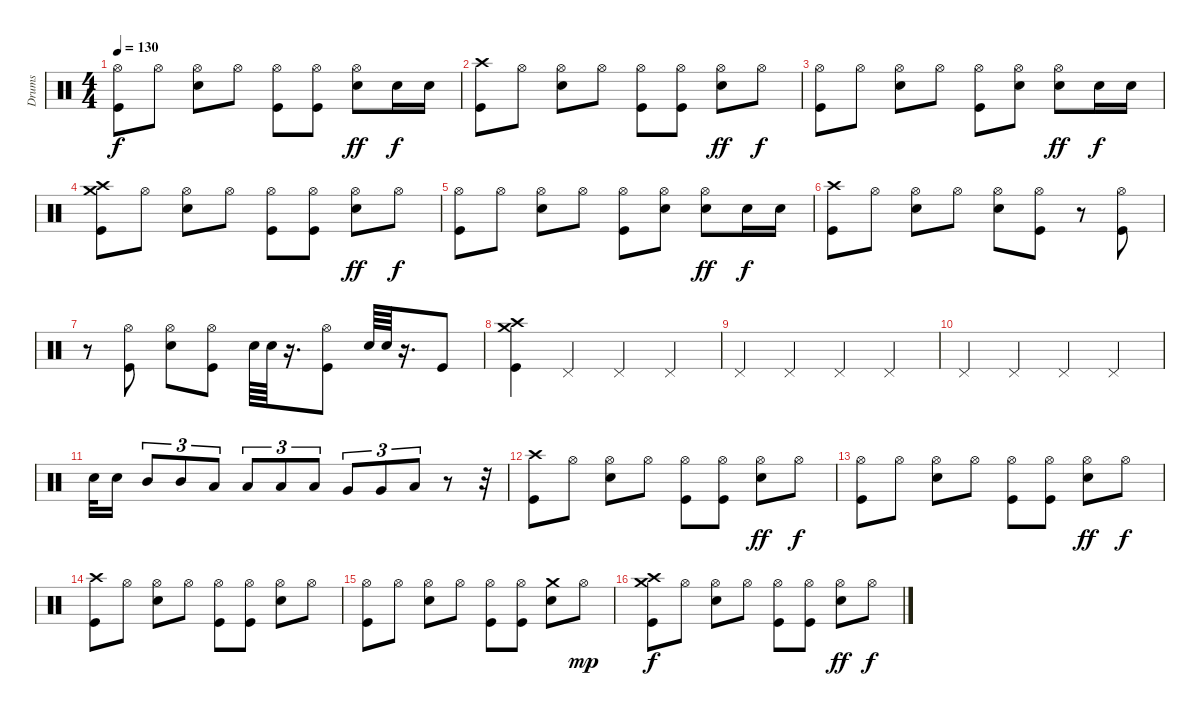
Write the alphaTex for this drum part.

\track ("Drums" "Drums") {instrument percussion}
\staff {score}
\articulation defaults
\ts (4 4)
\tempo 130
\clef neutral
\ks c
("Hi-Hat (open)" "Kick (hit)").8{dy f} "Hi-Hat (open)".8 ("Hi-Hat (open)" "Snare (hit) 2").8 "Hi-Hat (open)".8 ("Hi-Hat (open)" "Kick (hit)").8 ("Hi-Hat (open)" "Kick (hit)").8 ("Hi-Hat (open)" "Snare (hit) 2").8{dy ff} "Snare (hit) 2".16{dy f} "Snare (hit) 2".16 |
("Crash high (hit)" "Kick (hit)").8 "Hi-Hat (open)".8 ("Hi-Hat (open)" "Snare (hit) 2").8 "Hi-Hat (open)".8 ("Hi-Hat (open)" "Kick (hit)").8 ("Hi-Hat (open)" "Kick (hit)").8 ("Hi-Hat (open)" "Snare (hit) 2").8{dy ff} "Hi-Hat (open)".8{dy f} |
("Hi-Hat (open)" "Kick (hit)").8 "Hi-Hat (open)".8 ("Hi-Hat (open)" "Snare (hit) 2").8 "Hi-Hat (open)".8 ("Hi-Hat (open)" "Kick (hit)").8 ("Hi-Hat (open)" "Snare (hit) 2").8 ("Hi-Hat (open)" "Snare (hit) 2").8{dy ff} "Snare (hit) 2".16{dy f} "Snare (hit) 2".16 |
("Crash high (hit)" "Crash medium (hit)" "Kick (hit)").8 "Hi-Hat (open)".8 ("Hi-Hat (open)" "Snare (hit) 2").8 "Hi-Hat (open)".8 ("Hi-Hat (open)" "Kick (hit)").8 ("Hi-Hat (open)" "Kick (hit)").8 ("Hi-Hat (open)" "Snare (hit) 2").8{dy ff} "Hi-Hat (open)".8{dy f} |
("Hi-Hat (open)" "Kick (hit)").8 "Hi-Hat (open)".8 ("Hi-Hat (open)" "Snare (hit) 2").8 "Hi-Hat (open)".8 ("Hi-Hat (open)" "Kick (hit)").8 ("Hi-Hat (open)" "Snare (hit) 2").8 ("Hi-Hat (open)" "Snare (hit) 2").8{dy ff} "Snare (hit) 2".16{dy f} "Snare (hit) 2".16 |
("Crash high (hit)" "Kick (hit)").8 "Hi-Hat (open)".8 ("Hi-Hat (open)" "Snare (hit) 2").8 "Hi-Hat (open)".8 ("Hi-Hat (open)" "Snare (hit) 2").8 ("Hi-Hat (open)" "Kick (hit)").8 r.8 ("Hi-Hat (open)" "Kick (hit)").8 |
r.8 ("Hi-Hat (open)" "Kick (hit)").8 ("Hi-Hat (open)" "Snare (hit) 2").8 ("Hi-Hat (open)" "Kick (hit)").8 "Snare (hit) 2".64 "Snare (hit) 2".64 r.16{d} ("Hi-Hat (open)" "Kick (hit)").8 "Snare (hit) 2".64 "Snare (hit) 2".64 r.16{d} "Kick (hit)".8 |
("Crash medium (hit)" "Crash high (hit)" "Kick (hit)").4 "Pedal Hi-Hat (hit)".4 "Pedal Hi-Hat (hit)".4 "Pedal Hi-Hat (hit)".4 |
"Pedal Hi-Hat (hit)".4 "Pedal Hi-Hat (hit)".4 "Pedal Hi-Hat (hit)".4 "Pedal Hi-Hat (hit)".4 |
"Pedal Hi-Hat (hit)".4 "Pedal Hi-Hat (hit)".4 "Pedal Hi-Hat (hit)".4 "Pedal Hi-Hat (hit)".4 |
"Snare (hit) 2".32 "Snare (hit) 2".16 "Mid Tom (hit)".8{tu (3 2)} "Mid Tom (hit)".8{tu (3 2)} "Low Tom (hit)".8{tu (3 2)} "Low Tom (hit)".8{tu (3 2)} "Low Tom (hit)".8{tu (3 2)} "Low Tom (hit)".8{tu (3 2)} "Very Low Tom (hit)".8{tu (3 2)} "Very Low Tom (hit)".8{tu (3 2)} "Low Floor Tom (hit)".8{tu (3 2)} r.8 r.32 |
("Crash high (hit)" "Kick (hit)").8 "Hi-Hat (open)".8 ("Hi-Hat (open)" "Snare (hit) 2").8 "Hi-Hat (open)".8 ("Hi-Hat (open)" "Kick (hit)").8 ("Hi-Hat (open)" "Kick (hit)").8 ("Hi-Hat (open)" "Snare (hit) 2").8{dy ff} "Hi-Hat (open)".8{dy f} |
("Hi-Hat (open)" "Kick (hit)").8 "Hi-Hat (open)".8 ("Hi-Hat (open)" "Snare (hit) 2").8 "Hi-Hat (open)".8 ("Hi-Hat (open)" "Kick (hit)").8 ("Hi-Hat (open)" "Kick (hit)").8 ("Hi-Hat (open)" "Snare (hit) 2").8{dy ff} "Hi-Hat (open)".8{dy f} |
("Crash high (hit)" "Kick (hit)").8 "Hi-Hat (open)".8 ("Hi-Hat (open)" "Snare (hit) 2").8 "Hi-Hat (open)".8 ("Hi-Hat (open)" "Kick (hit)").8 ("Hi-Hat (open)" "Kick (hit)").8 ("Hi-Hat (open)" "Snare (hit) 2").8 "Hi-Hat (open)".8 |
("Hi-Hat (open)" "Kick (hit)").8 "Hi-Hat (open)".8 ("Hi-Hat (open)" "Snare (hit) 2").8 "Hi-Hat (open)".8 ("Hi-Hat (open)" "Kick (hit)").8 ("Hi-Hat (open)" "Kick (hit)").8 ("Crash medium (hit)" "Snare (hit) 2").8 "Hi-Hat (open)".8{dy mp} |
("Crash high (hit)" "Crash medium (hit)" "Kick (hit)").8{dy f} "Hi-Hat (open)".8 ("Hi-Hat (open)" "Snare (hit) 2").8 "Hi-Hat (open)".8 ("Hi-Hat (open)" "Kick (hit)").8 ("Hi-Hat (open)" "Kick (hit)").8 ("Hi-Hat (open)" "Snare (hit) 2").8{dy ff} "Hi-Hat (open)".8{dy f}
